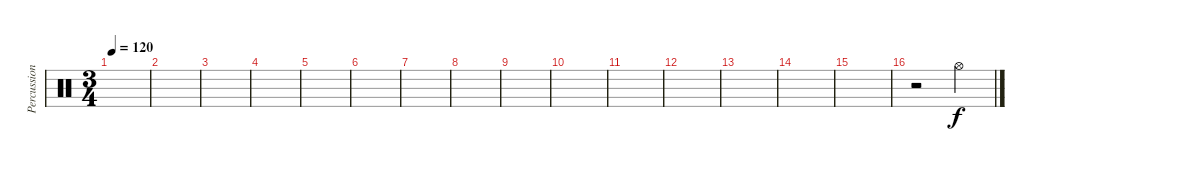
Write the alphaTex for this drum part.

\track ("Percussion" "Percussion") {instrument percussion}
\staff {score}
\articulation defaults
\ts (3 4)
\tempo 120
\clef neutral
\ks c
|
|
|
|
|
|
|
|
|
|
|
|
|
|
|
r.2 "Hi-Hat (open)".4
